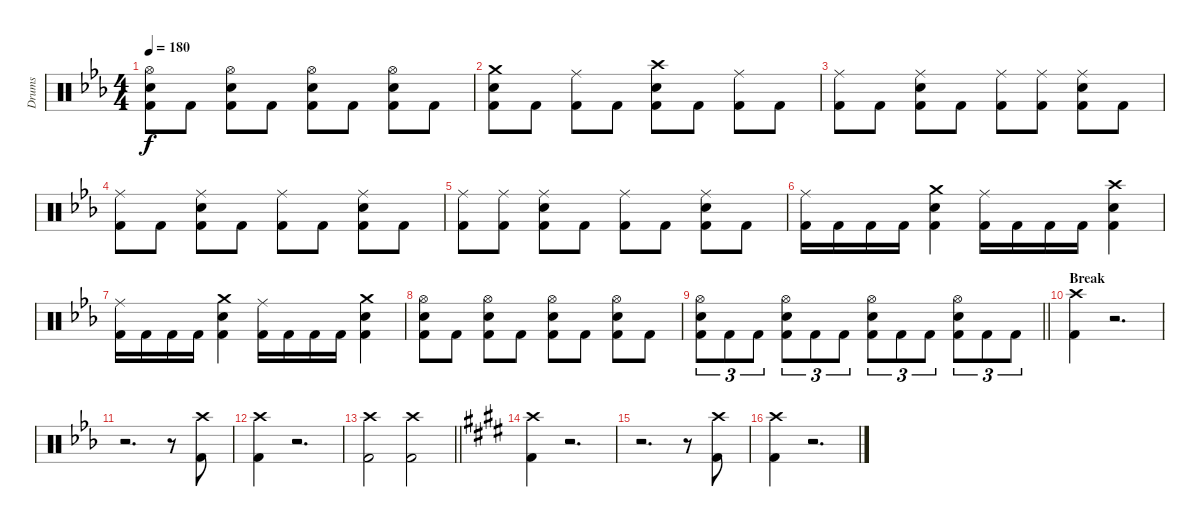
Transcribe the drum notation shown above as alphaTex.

\track ("Drums" "Drums") {instrument percussion}
\staff {score}
\articulation defaults
\ts (4 4)
\tempo 180
\clef neutral
\ks eb
("Hi-Hat (open)" "Snare (hit) 2" "Kick (hit) 2").8{dy f} "Kick (hit) 2".8 ("Hi-Hat (open)" "Snare (hit) 2" "Kick (hit) 2").8 "Kick (hit) 2".8 ("Hi-Hat (open)" "Snare (hit) 2" "Kick (hit) 2").8 "Kick (hit) 2".8 ("Hi-Hat (open)" "Snare (hit) 2" "Kick (hit) 2").8 "Kick (hit) 2".8 |
("Crash medium (hit)" "Snare (hit) 2" "Kick (hit) 2").8 "Kick (hit) 2".8 ("Ride (middle)" "Kick (hit) 2").8 "Kick (hit) 2".8 ("Crash high (hit)" "Snare (hit) 2" "Kick (hit) 2").8 "Kick (hit) 2".8 ("Ride (middle)" "Kick (hit) 2").8 "Kick (hit) 2".8 |
("Ride (middle)" "Kick (hit) 2").8 "Kick (hit) 2".8 ("Ride (middle)" "Snare (hit) 2" "Kick (hit) 2").8 "Kick (hit) 2".8 ("Ride (middle)" "Kick (hit) 2").8 ("Ride (middle)" "Kick (hit) 2").8 ("Ride (middle)" "Snare (hit) 2" "Kick (hit) 2").8 "Kick (hit) 2".8 |
("Ride (middle)" "Kick (hit) 2").8 "Kick (hit) 2".8 ("Ride (middle)" "Snare (hit) 2" "Kick (hit) 2").8 "Kick (hit) 2".8 ("Ride (middle)" "Kick (hit) 2").8 "Kick (hit) 2".8 ("Ride (middle)" "Snare (hit) 2" "Kick (hit) 2").8 "Kick (hit) 2".8 |
("Ride (middle)" "Kick (hit) 2").8 ("Ride (middle)" "Kick (hit) 2").8 ("Ride (middle)" "Snare (hit) 2" "Kick (hit) 2").8 "Kick (hit) 2".8 ("Ride (middle)" "Kick (hit) 2").8 "Kick (hit) 2".8 ("Ride (middle)" "Snare (hit) 2" "Kick (hit) 2").8 "Kick (hit) 2".8 |
("Ride (middle)" "Kick (hit) 2").16 "Kick (hit) 2".16 "Kick (hit) 2".16 "Kick (hit) 2".16 ("Crash medium (hit)" "Snare (hit) 2" "Kick (hit) 2").4 ("Ride (middle)" "Kick (hit) 2").16 "Kick (hit) 2".16 "Kick (hit) 2".16 "Kick (hit) 2".16 ("Crash high (hit)" "Snare (hit) 2" "Kick (hit) 2").4 |
("Ride (middle)" "Kick (hit) 2").16 "Kick (hit) 2".16 "Kick (hit) 2".16 "Kick (hit) 2".16 ("Crash medium (hit)" "Snare (hit) 2" "Kick (hit) 2").4 ("Ride (middle)" "Kick (hit) 2").16 "Kick (hit) 2".16 "Kick (hit) 2".16 "Kick (hit) 2".16 ("Crash medium (hit)" "Snare (hit) 2" "Kick (hit) 2").4 |
("Hi-Hat (open)" "Snare (hit) 2" "Kick (hit) 2").8 "Kick (hit) 2".8 ("Hi-Hat (open)" "Snare (hit) 2" "Kick (hit) 2").8 "Kick (hit) 2".8 ("Hi-Hat (open)" "Snare (hit) 2" "Kick (hit) 2").8 "Kick (hit) 2".8 ("Hi-Hat (open)" "Snare (hit) 2" "Kick (hit) 2").8 "Kick (hit) 2".8 |
\barLineRight lightlight
("Hi-Hat (open)" "Snare (hit) 2" "Kick (hit) 2").8{tu (3 2)} "Kick (hit) 2".8{tu (3 2)} "Kick (hit) 2".8{tu (3 2)} ("Hi-Hat (open)" "Snare (hit) 2" "Kick (hit) 2").8{tu (3 2)} "Kick (hit) 2".8{tu (3 2)} "Kick (hit) 2".8{tu (3 2)} ("Hi-Hat (open)" "Snare (hit) 2" "Kick (hit) 2").8{tu (3 2)} "Kick (hit) 2".8{tu (3 2)} "Kick (hit) 2".8{tu (3 2)} ("Hi-Hat (open)" "Snare (hit) 2" "Kick (hit) 2").8{tu (3 2)} "Kick (hit) 2".8{tu (3 2)} "Kick (hit) 2".8{tu (3 2)} |
\section ("" "Break")
("Crash high (hit)" "Kick (hit) 2").4 r.2{d} |
r.2{d} r.8 ("Crash high (hit)" "Kick (hit) 2").8 |
("Crash high (hit)" "Kick (hit) 2").4 r.2{d} |
\barLineRight lightlight
("Crash high (hit)" "Kick (hit) 2").2 ("Crash high (hit)" "Kick (hit) 2").2 |
\section ("" "")
\ks e
("Crash high (hit)" "Kick (hit) 2").4 r.2{d} |
r.2{d} r.8 ("Crash high (hit)" "Kick (hit) 2").8 |
("Crash high (hit)" "Kick (hit) 2").4 r.2{d}
